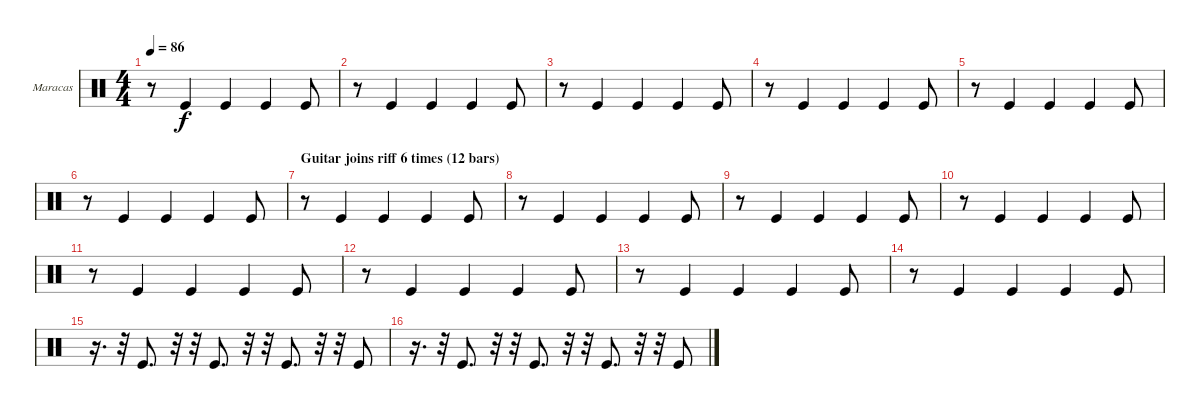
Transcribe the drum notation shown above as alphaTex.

\bracketExtendMode groupsimilarinstruments
\firstSystemTrackNameOrientation horizontal
\otherSystemsTrackNameOrientation horizontal
\track ("Maracas" "Maracas") {instrument percussion}
\staff {score}
\articulation defaults
\ts (4 4)
\tempo 86
\clef neutral
\ks c
r.8{dy f} "Kick (hit)".4 "Kick (hit)".4 "Kick (hit)".4 "Kick (hit)".8 |
r.8 "Kick (hit)".4 "Kick (hit)".4 "Kick (hit)".4 "Kick (hit)".8 |
r.8 "Kick (hit)".4 "Kick (hit)".4 "Kick (hit)".4 "Kick (hit)".8 |
r.8 "Kick (hit)".4 "Kick (hit)".4 "Kick (hit)".4 "Kick (hit)".8 |
r.8 "Kick (hit)".4 "Kick (hit)".4 "Kick (hit)".4 "Kick (hit)".8 |
r.8 "Kick (hit)".4 "Kick (hit)".4 "Kick (hit)".4 "Kick (hit)".8 |
\section ("" "Guitar joins riff 6 times (12 bars)")
r.8 "Kick (hit)".4 "Kick (hit)".4 "Kick (hit)".4 "Kick (hit)".8 |
r.8 "Kick (hit)".4 "Kick (hit)".4 "Kick (hit)".4 "Kick (hit)".8 |
r.8 "Kick (hit)".4 "Kick (hit)".4 "Kick (hit)".4 "Kick (hit)".8 |
r.8 "Kick (hit)".4 "Kick (hit)".4 "Kick (hit)".4 "Kick (hit)".8 |
r.8 "Kick (hit)".4 "Kick (hit)".4 "Kick (hit)".4 "Kick (hit)".8 |
r.8 "Kick (hit)".4 "Kick (hit)".4 "Kick (hit)".4 "Kick (hit)".8 |
r.8 "Kick (hit)".4 "Kick (hit)".4 "Kick (hit)".4 "Kick (hit)".8 |
r.8 "Kick (hit)".4 "Kick (hit)".4 "Kick (hit)".4 "Kick (hit)".8 |
r.16{d} r.32 "Kick (hit)".8{d} r.32 r.32 "Kick (hit)".8{d} r.32 r.32 "Kick (hit)".8{d} r.32 r.32 "Kick (hit)".8 |
r.16{d} r.32 "Kick (hit)".8{d} r.32 r.32 "Kick (hit)".8{d} r.32 r.32 "Kick (hit)".8{d} r.32 r.32 "Kick (hit)".8
